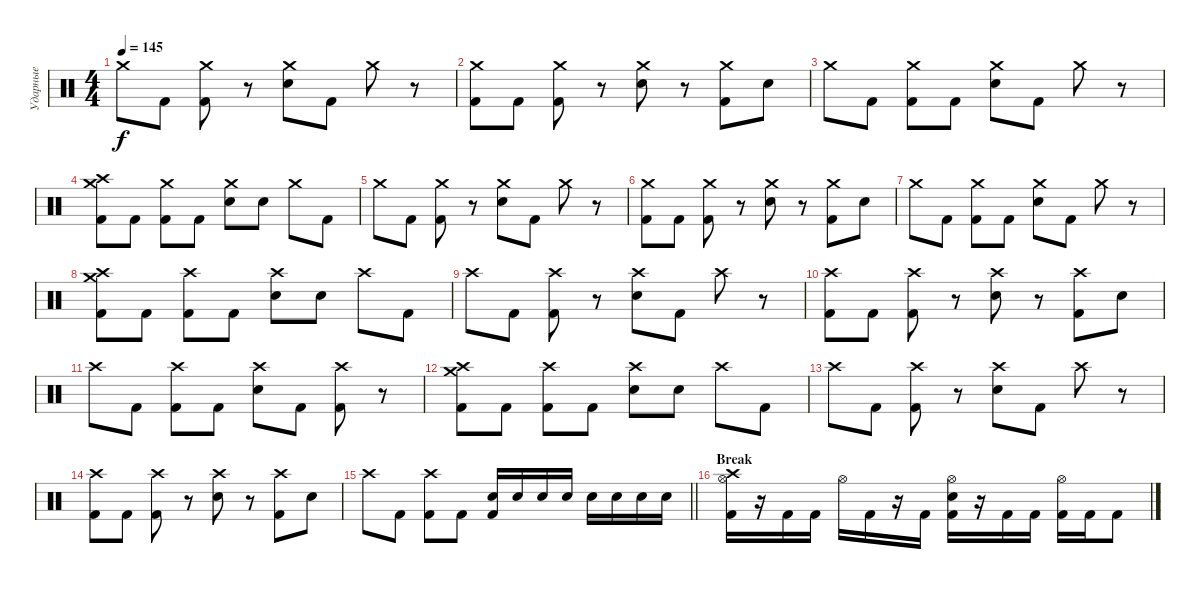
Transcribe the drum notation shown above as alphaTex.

\track ("Ударные" "Ударные") {instrument percussion}
\staff {score}
\articulation defaults
\ts (4 4)
\tempo 145
\clef neutral
\ks c "Crash medium (hit)".8{dy f} "Kick (hit) 2".8
("Crash medium (hit)" "Kick (hit) 2").8 r.8 ("Crash medium (hit)" "Snare (hit) 2").8 "Kick (hit) 2".8 "Crash medium (hit)".8 r.8 |
("Crash medium (hit)" "Kick (hit) 2").8 "Kick (hit) 2".8 ("Crash medium (hit)" "Kick (hit) 2").8 r.8 ("Crash medium (hit)" "Snare (hit) 2").8 r.8 ("Crash medium (hit)" "Kick (hit) 2").8 "Snare (hit) 2".8 |
"Crash medium (hit)".8 "Kick (hit) 2".8 ("Crash medium (hit)" "Kick (hit) 2").8 "Kick (hit) 2".8 ("Crash medium (hit)" "Snare (hit) 2").8 "Kick (hit) 2".8 "Crash medium (hit)".8 r.8 |
("Crash high (hit)" "Crash medium (hit)" "Kick (hit) 2").8 "Kick (hit) 2".8 ("Crash medium (hit)" "Kick (hit) 2").8 "Kick (hit) 2".8 ("Crash medium (hit)" "Snare (hit) 2").8 "Snare (hit) 2".8 "Crash medium (hit)".8 "Kick (hit) 2".8 |
"Crash medium (hit)".8 "Kick (hit) 2".8 ("Crash medium (hit)" "Kick (hit) 2").8 r.8 ("Crash medium (hit)" "Snare (hit) 2").8 "Kick (hit) 2".8 "Crash medium (hit)".8 r.8 |
("Crash medium (hit)" "Kick (hit) 2").8 "Kick (hit) 2".8 ("Crash medium (hit)" "Kick (hit) 2").8 r.8 ("Crash medium (hit)" "Snare (hit) 2").8 r.8 ("Crash medium (hit)" "Kick (hit) 2").8 "Snare (hit) 2".8 |
"Crash medium (hit)".8 "Kick (hit) 2".8 ("Crash medium (hit)" "Kick (hit) 2").8 "Kick (hit) 2".8 ("Crash medium (hit)" "Snare (hit) 2").8 "Kick (hit) 2".8 "Crash medium (hit)".8 r.8 |
("Crash medium (hit)" "Crash high (hit)" "Kick (hit) 2").8 "Kick (hit) 2".8 ("Crash high (hit)" "Kick (hit) 2").8 "Kick (hit) 2".8 ("Crash high (hit)" "Snare (hit) 2").8 "Snare (hit) 2".8 "Crash high (hit)".8 "Kick (hit) 2".8 |
"Crash high (hit)".8 "Kick (hit) 2".8 ("Crash high (hit)" "Kick (hit) 2").8 r.8 ("Crash high (hit)" "Snare (hit) 2").8 "Kick (hit) 2".8 "Crash high (hit)".8 r.8 |
("Crash high (hit)" "Kick (hit) 2").8 "Kick (hit) 2".8 ("Crash high (hit)" "Kick (hit) 2").8 r.8 ("Crash high (hit)" "Snare (hit) 2").8 r.8 ("Crash high (hit)" "Kick (hit) 2").8 "Snare (hit) 2".8 |
"Crash high (hit)".8 "Kick (hit) 2".8 ("Crash high (hit)" "Kick (hit) 2").8 "Kick (hit) 2".8 ("Crash high (hit)" "Snare (hit) 2").8 "Kick (hit) 2".8 ("Crash high (hit)" "Kick (hit) 2").8 r.8 |
("Crash medium (hit)" "Crash high (hit)" "Kick (hit) 2").8 "Kick (hit) 2".8 ("Crash high (hit)" "Kick (hit) 2").8 "Kick (hit) 2".8 ("Crash high (hit)" "Snare (hit) 2").8 "Snare (hit) 2".8 "Crash high (hit)".8 "Kick (hit) 2".8 |
"Crash high (hit)".8 "Kick (hit) 2".8 ("Crash high (hit)" "Kick (hit) 2").8 r.8 ("Crash high (hit)" "Snare (hit) 2").8 "Kick (hit) 2".8 "Crash high (hit)".8 r.8 |
("Crash high (hit)" "Kick (hit) 2").8 "Kick (hit) 2".8 ("Crash high (hit)" "Kick (hit) 2").8 r.8 ("Crash high (hit)" "Snare (hit) 2").8 r.8 ("Crash high (hit)" "Kick (hit) 2").8 "Snare (hit) 2".8 |
\barLineRight lightlight "Crash high (hit)".8 "Kick (hit) 2".8
("Crash high (hit)" "Kick (hit) 2").8 "Kick (hit) 2".8 ("Kick (hit) 2" "Snare (hit) 2").16 "Snare (hit) 2".16 "Snare (hit) 2".16 "Snare (hit) 2".16 "Snare (hit) 2".16 "Snare (hit) 2".16 "Snare (hit) 2".16 "Snare (hit) 2".16 |
\section ("" "Break")
("Hi-Hat (open)" "Crash high (hit)" "Kick (hit) 2").16 r.16 "Kick (hit) 2".16 "Kick (hit) 2".16 "Hi-Hat (open)".16 "Kick (hit) 2".16 r.16 "Kick (hit) 2".16 ("Hi-Hat (open)" "Snare (hit) 2" "Kick (hit) 2").16 r.16 "Kick (hit) 2".16 "Kick (hit) 2".16 ("Hi-Hat (open)" "Kick (hit) 2").16 "Kick (hit) 2".16 "Kick (hit) 2".8
